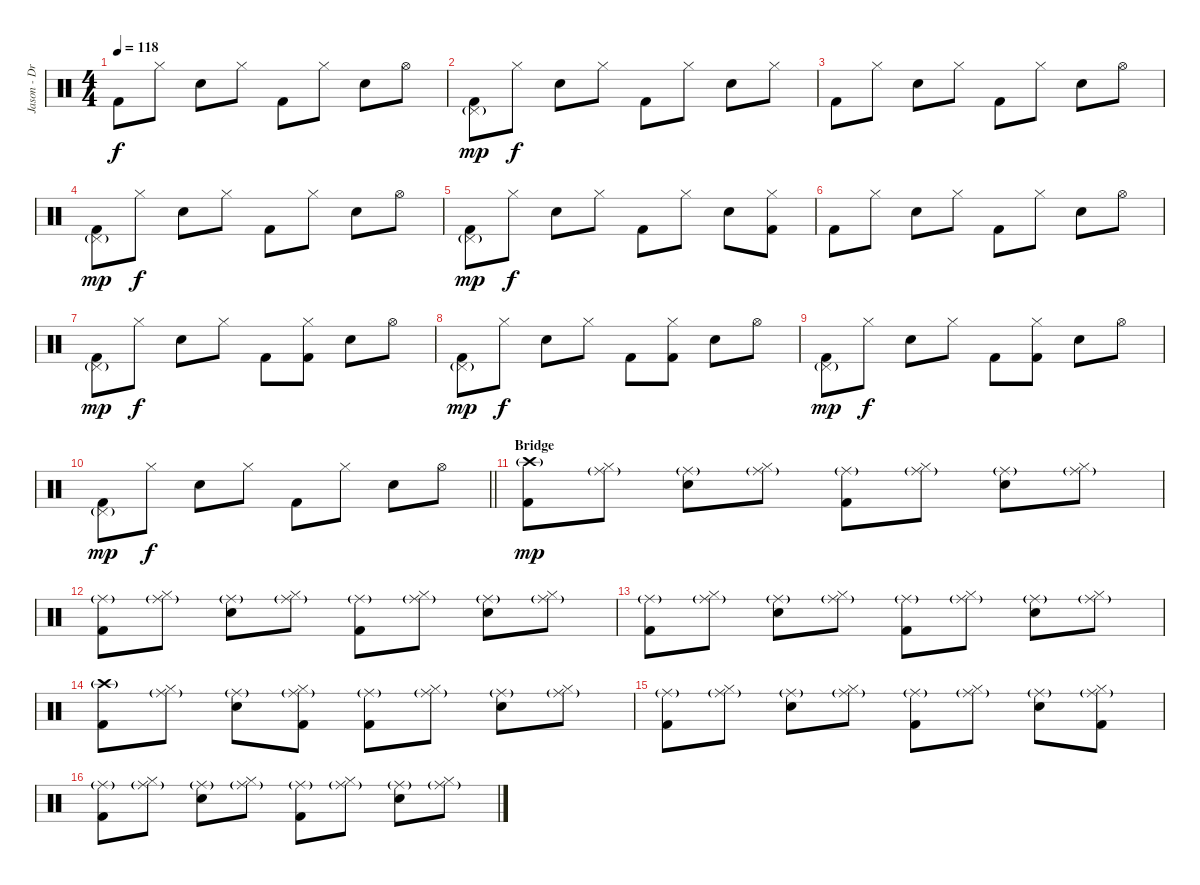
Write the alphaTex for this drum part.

\track ("Jason - Drums" "Jason - Dr") {instrument percussion}
\staff {score}
\articulation defaults
\ts (4 4)
\tempo 118
\clef neutral
\ks c "Kick (hit) 2".8{dy f} "Hi-Hat (closed)".8 "Electric Snare (hit)".8 "Hi-Hat (closed)".8 "Kick (hit) 2".8 "Hi-Hat (closed)".8 "Electric Snare (hit)".8 "Hi-Hat (open)".8
|
("Pedal Hi-Hat (hit)"{g} "Kick (hit) 2").8{dy mp} "Hi-Hat (closed)".8{dy f} "Electric Snare (hit)".8 "Hi-Hat (closed)".8 "Kick (hit) 2".8 "Hi-Hat (closed)".8 "Electric Snare (hit)".8 "Hi-Hat (closed)".8 |
"Kick (hit) 2".8 "Hi-Hat (closed)".8 "Electric Snare (hit)".8 "Hi-Hat (closed)".8 "Kick (hit) 2".8 "Hi-Hat (closed)".8 "Electric Snare (hit)".8 "Hi-Hat (open)".8 |
("Pedal Hi-Hat (hit)"{g} "Kick (hit) 2").8{dy mp} "Hi-Hat (closed)".8{dy f} "Electric Snare (hit)".8 "Hi-Hat (closed)".8 "Kick (hit) 2".8 "Hi-Hat (closed)".8 "Electric Snare (hit)".8 "Hi-Hat (open)".8 |
("Pedal Hi-Hat (hit)"{g} "Kick (hit) 2").8{dy mp} "Hi-Hat (closed)".8{dy f} "Electric Snare (hit)".8 "Hi-Hat (closed)".8 "Kick (hit) 2".8 "Hi-Hat (closed)".8 "Electric Snare (hit)".8 ("Hi-Hat (closed)" "Kick (hit) 2").8 |
"Kick (hit) 2".8 "Hi-Hat (closed)".8 "Electric Snare (hit)".8 "Hi-Hat (closed)".8 "Kick (hit) 2".8 "Hi-Hat (closed)".8 "Electric Snare (hit)".8 "Hi-Hat (open)".8 |
("Pedal Hi-Hat (hit)"{g} "Kick (hit) 2").8{dy mp} "Hi-Hat (closed)".8{dy f} "Electric Snare (hit)".8 "Hi-Hat (closed)".8 "Kick (hit) 2".8 ("Hi-Hat (closed)" "Kick (hit) 2").8 "Electric Snare (hit)".8 "Hi-Hat (open)".8 |
("Pedal Hi-Hat (hit)"{g} "Kick (hit) 2").8{dy mp} "Hi-Hat (closed)".8{dy f} "Electric Snare (hit)".8 "Hi-Hat (closed)".8 "Kick (hit) 2".8 ("Hi-Hat (closed)" "Kick (hit) 2").8 "Electric Snare (hit)".8 "Hi-Hat (open)".8 |
("Pedal Hi-Hat (hit)"{g} "Kick (hit) 2").8{dy mp} "Hi-Hat (closed)".8{dy f} "Electric Snare (hit)".8 "Hi-Hat (closed)".8 "Kick (hit) 2".8 ("Hi-Hat (closed)" "Kick (hit) 2").8 "Electric Snare (hit)".8 "Hi-Hat (open)".8 |
\barLineRight lightlight
("Pedal Hi-Hat (hit)"{g} "Kick (hit) 2").8{dy mp} "Hi-Hat (closed)".8{dy f} "Electric Snare (hit)".8 "Hi-Hat (closed)".8 "Kick (hit) 2".8 "Hi-Hat (closed)".8 "Electric Snare (hit)".8 "Hi-Hat (open)".8 |
\section ("" "Bridge")
("Crash high (hit)"{g} "Kick (hit) 2").8{dy mp} ("Ride (middle)"{g} "Hi-Hat (closed)").8 ("Ride (middle)"{g} "Electric Snare (hit)").8 ("Ride (middle)"{g} "Hi-Hat (closed)").8 ("Ride (middle)"{g} "Kick (hit) 2").8 ("Ride (middle)"{g} "Hi-Hat (closed)").8 ("Ride (middle)"{g} "Electric Snare (hit)").8 ("Ride (middle)"{g} "Hi-Hat (closed)").8 |
("Ride (middle)"{g} "Kick (hit) 2").8 ("Ride (middle)"{g} "Hi-Hat (closed)").8 ("Ride (middle)"{g} "Electric Snare (hit)").8 ("Ride (middle)"{g} "Hi-Hat (closed)").8 ("Ride (middle)"{g} "Kick (hit) 2").8 ("Ride (middle)"{g} "Hi-Hat (closed)").8 ("Ride (middle)"{g} "Electric Snare (hit)").8 ("Ride (middle)"{g} "Hi-Hat (closed)").8 |
("Ride (middle)"{g} "Kick (hit) 2").8 ("Ride (middle)"{g} "Hi-Hat (closed)").8 ("Ride (middle)"{g} "Electric Snare (hit)").8 ("Ride (middle)"{g} "Hi-Hat (closed)").8 ("Ride (middle)"{g} "Kick (hit) 2").8 ("Ride (middle)"{g} "Hi-Hat (closed)").8 ("Ride (middle)"{g} "Electric Snare (hit)").8 ("Ride (middle)"{g} "Hi-Hat (closed)").8 |
("Crash high (hit)"{g} "Kick (hit) 2").8 ("Ride (middle)"{g} "Hi-Hat (closed)").8 ("Ride (middle)"{g} "Electric Snare (hit)").8 ("Ride (middle)"{g} "Hi-Hat (closed)" "Kick (hit) 2").8 ("Ride (middle)"{g} "Kick (hit) 2").8 ("Ride (middle)"{g} "Hi-Hat (closed)").8 ("Ride (middle)"{g} "Electric Snare (hit)").8 ("Ride (middle)"{g} "Hi-Hat (closed)").8 |
("Ride (middle)"{g} "Kick (hit) 2").8 ("Ride (middle)"{g} "Hi-Hat (closed)").8 ("Ride (middle)"{g} "Electric Snare (hit)").8 ("Ride (middle)"{g} "Hi-Hat (closed)").8 ("Ride (middle)"{g} "Kick (hit) 2").8 ("Ride (middle)"{g} "Hi-Hat (closed)").8 ("Ride (middle)"{g} "Electric Snare (hit)").8 ("Ride (middle)"{g} "Hi-Hat (closed)" "Kick (hit) 2").8 |
("Ride (middle)"{g} "Kick (hit) 2").8 ("Ride (middle)"{g} "Hi-Hat (closed)").8 ("Ride (middle)"{g} "Electric Snare (hit)").8 ("Ride (middle)"{g} "Hi-Hat (closed)").8 ("Ride (middle)"{g} "Kick (hit) 2").8 ("Ride (middle)"{g} "Hi-Hat (closed)").8 ("Ride (middle)"{g} "Electric Snare (hit)").8 ("Ride (middle)"{g} "Hi-Hat (closed)").8
